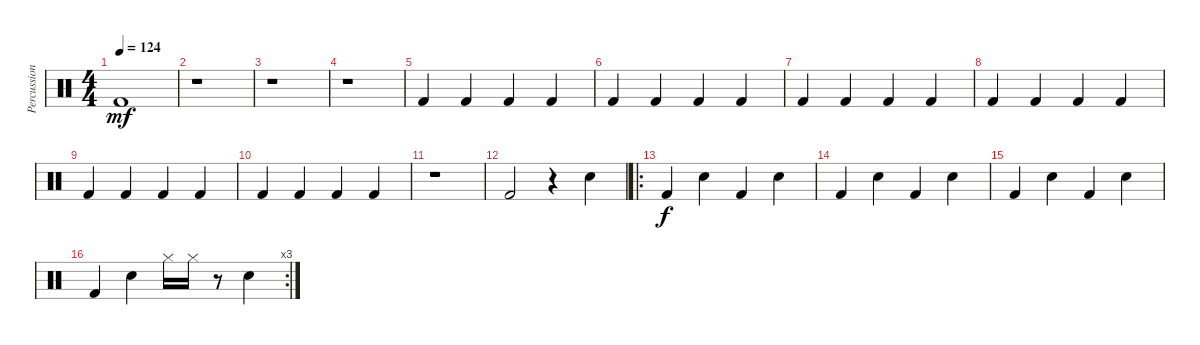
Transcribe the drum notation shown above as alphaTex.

\track ("Percussion" "Percussion") {instrument percussion}
\staff {score}
\articulation defaults
\ts (4 4)
\tempo 124
\clef neutral
\ks c "Kick (hit) 2".1{dy mf}
|
r.1 |
r.1 |
r.1 |
"Kick (hit) 2".4 "Kick (hit) 2".4 "Kick (hit) 2".4 "Kick (hit) 2".4 |
"Kick (hit) 2".4 "Kick (hit) 2".4 "Kick (hit) 2".4 "Kick (hit) 2".4 |
"Kick (hit) 2".4 "Kick (hit) 2".4 "Kick (hit) 2".4 "Kick (hit) 2".4 |
"Kick (hit) 2".4 "Kick (hit) 2".4 "Kick (hit) 2".4 "Kick (hit) 2".4 |
"Kick (hit) 2".4 "Kick (hit) 2".4 "Kick (hit) 2".4 "Kick (hit) 2".4 |
"Kick (hit) 2".4 "Kick (hit) 2".4 "Kick (hit) 2".4 "Kick (hit) 2".4 |
r.1 |
"Kick (hit) 2".2 r.4 "Snare (hit) 2".4 |
\ro "Kick (hit) 2".4{dy f} "Snare (hit) 2".4 "Kick (hit) 2".4 "Snare (hit) 2".4
|
"Kick (hit) 2".4 "Snare (hit) 2".4 "Kick (hit) 2".4 "Snare (hit) 2".4 |
"Kick (hit) 2".4 "Snare (hit) 2".4 "Kick (hit) 2".4 "Snare (hit) 2".4 |
\rc 3 "Kick (hit) 2".4 "Snare (hit) 2".4 "Hi-Hat (closed)".16 "Hi-Hat (closed)".16
r.8 "Snare (hit) 2".4
